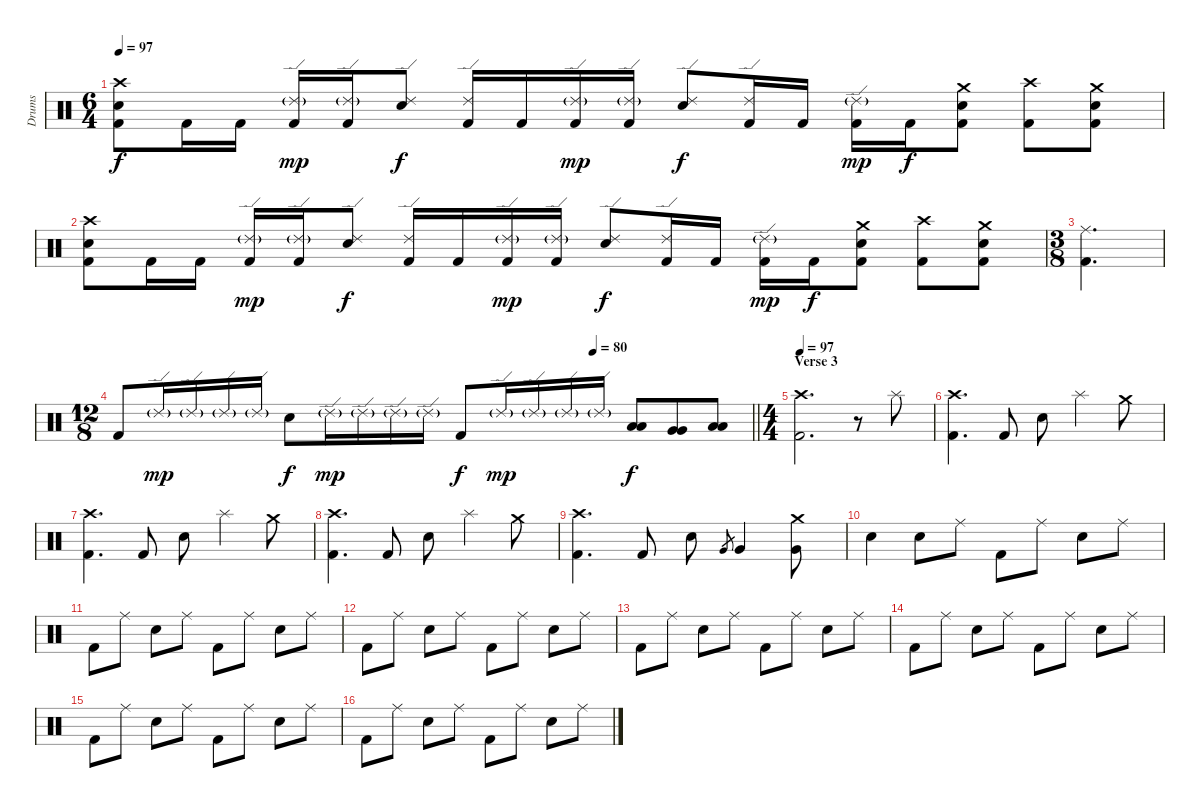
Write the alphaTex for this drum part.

\track ("Drums" "Drums") {instrument percussion}
\staff {score}
\articulation defaults
\ts (6 4)
\tempo 97
\clef neutral
\ks c
("Crash high (hit)" "Snare (hit) 2" "Kick (hit) 2").8{dy f} "Kick (hit) 2".16 "Kick (hit) 2".16 ("Ride (edge) 2"{g} "Kick (hit) 2").16{dy mp} ("Ride (edge) 2"{g} "Kick (hit) 2").16 ("Ride (edge) 2" "Snare (hit) 2").8{dy f} ("Ride (edge) 2" "Kick (hit) 2").16 "Kick (hit) 2".16 ("Ride (edge) 2"{g} "Kick (hit) 2").16{dy mp} ("Ride (edge) 2"{g} "Kick (hit) 2").16 ("Ride (edge) 2" "Snare (hit) 2").8{dy f} ("Ride (edge) 2" "Kick (hit) 2").16 "Kick (hit) 2".16 ("Ride (edge) 2"{g} "Kick (hit) 2").16{dy mp} "Kick (hit) 2".16{dy f} ("Crash medium (hit)" "Snare (hit) 2" "Kick (hit) 2").8 ("Crash high (hit)" "Kick (hit) 2").8 ("Crash medium (hit)" "Snare (hit) 2" "Kick (hit) 2").8 |
("Crash high (hit)" "Snare (hit) 2" "Kick (hit) 2").8 "Kick (hit) 2".16 "Kick (hit) 2".16 ("Ride (edge) 2"{g} "Kick (hit) 2").16{dy mp} ("Ride (edge) 2"{g} "Kick (hit) 2").16 ("Ride (edge) 2" "Snare (hit) 2").8{dy f} ("Ride (edge) 2" "Kick (hit) 2").16 "Kick (hit) 2".16 ("Ride (edge) 2"{g} "Kick (hit) 2").16{dy mp} ("Ride (edge) 2"{g} "Kick (hit) 2").16 ("Ride (edge) 2" "Snare (hit) 2").8{dy f} ("Ride (edge) 2" "Kick (hit) 2").16 "Kick (hit) 2".16 ("Ride (edge) 2"{g} "Kick (hit) 2").16{dy mp} "Kick (hit) 2".16{dy f} ("Crash medium (hit)" "Snare (hit) 2" "Kick (hit) 2").8 ("Crash high (hit)" "Kick (hit) 2").8 ("Crash medium (hit)" "Snare (hit) 2" "Kick (hit) 2").8 |
\ts (3 8)
("Ride (middle)" "Kick (hit) 2").4{d} |
\ts (12 8)
\tempo (80 0.75)
\barLineRight lightlight "Kick (hit) 2".8 "Ride (edge) 2"{g}.16{dy mp} "Ride (edge) 2"{g}.16 "Ride (edge) 2"{g}.16 "Ride (edge) 2"{g}.16 "Snare (hit) 2".8{dy f} "Ride (edge) 2"{g}.16{dy mp} "Ride (edge) 2"{g}.16 "Ride (edge) 2"{g}.16 "Ride (edge) 2"{g}.16 "Kick (hit) 2".8{dy f} "Ride (edge) 2"{g}.16{dy mp} "Ride (edge) 2"{g}.16 "Ride (edge) 2"{g}.16 "Ride (edge) 2"{g}.16
("Low Tom (hit)" "Low Tom (hit)").8{dy f} ("Very Low Tom (hit)" "Very Low Tom (hit)").8 ("Low Floor Tom (hit)" "Low Floor Tom (hit)").8 |
\ts (4 4)
\section ("" "Verse 3")
\tempo 97
("Crash high (hit)" "Kick (hit) 2").2{d} r.8 "Splash (hit)".8 |
("Crash high (hit)" "Kick (hit) 2").4{d} "Kick (hit) 2".8 "Snare (hit) 2".8 "Splash (hit)".4 "Crash medium (hit)".8 |
("Crash high (hit)" "Kick (hit) 2").4{d} "Kick (hit) 2".8 "Snare (hit) 2".8 "Splash (hit)".4 "Crash medium (hit)".8 |
("Crash high (hit)" "Kick (hit) 2").4{d} "Kick (hit) 2".8 "Snare (hit) 2".8 "Splash (hit)".4 "Crash medium (hit)".8 |
("Crash high (hit)" "Kick (hit) 2").4{d} "Kick (hit) 2".8 "Snare (hit) 2".8 "Very Low Tom (hit)".8{gr} "Very Low Tom (hit)".4 ("Crash medium (hit)" "Very Low Tom (hit)").8 |
"Snare (hit) 2".4 "Snare (hit) 2".8 "Ride (middle)".8 "Kick (hit) 2".8 "Ride (middle)".8 "Snare (hit) 2".8 "Ride (middle)".8 |
"Kick (hit) 2".8 "Ride (middle)".8 "Snare (hit) 2".8 "Ride (middle)".8 "Kick (hit) 2".8 "Ride (middle)".8 "Snare (hit) 2".8 "Ride (middle)".8 |
"Kick (hit) 2".8 "Ride (middle)".8 "Snare (hit) 2".8 "Ride (middle)".8 "Kick (hit) 2".8 "Ride (middle)".8 "Snare (hit) 2".8 "Ride (middle)".8 |
"Kick (hit) 2".8 "Ride (middle)".8 "Snare (hit) 2".8 "Ride (middle)".8 "Kick (hit) 2".8 "Ride (middle)".8 "Snare (hit) 2".8 "Ride (middle)".8 |
"Kick (hit) 2".8 "Ride (middle)".8 "Snare (hit) 2".8 "Ride (middle)".8 "Kick (hit) 2".8 "Ride (middle)".8 "Snare (hit) 2".8 "Ride (middle)".8 |
"Kick (hit) 2".8 "Ride (middle)".8 "Snare (hit) 2".8 "Ride (middle)".8 "Kick (hit) 2".8 "Ride (middle)".8 "Snare (hit) 2".8 "Ride (middle)".8 |
"Kick (hit) 2".8 "Ride (middle)".8 "Snare (hit) 2".8 "Ride (middle)".8 "Kick (hit) 2".8 "Ride (middle)".8 "Snare (hit) 2".8 "Ride (middle)".8
